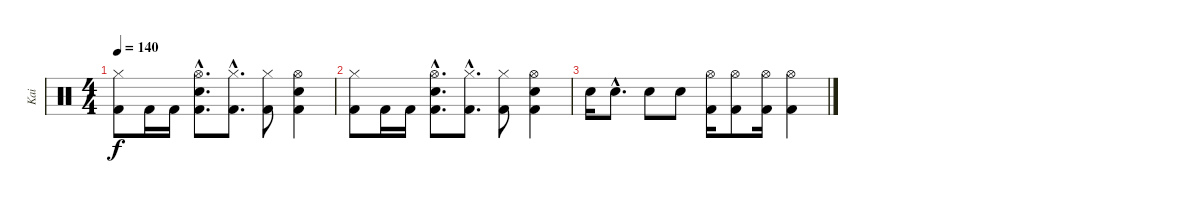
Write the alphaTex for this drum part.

\track ("Kai" "Kai") {instrument percussion}
\staff {score}
\articulation defaults
\ts (4 4)
\tempo 140
\clef neutral
\ks c
("Kick (hit) 2" "Hi-Hat (closed)").8{dy f} "Kick (hit) 2".16 "Kick (hit) 2".16 ("Kick (hit) 2"{hac} "Electric Snare (hit)"{hac} "Hi-Hat (open)"{hac}).8{d} ("Kick (hit) 2"{hac} "Hi-Hat (closed)"{hac}).8{d} ("Kick (hit) 2" "Hi-Hat (closed)").8 ("Kick (hit) 2" "Electric Snare (hit)" "Hi-Hat (open)").4 |
("Kick (hit) 2" "Hi-Hat (closed)").8 "Kick (hit) 2".16 "Kick (hit) 2".16 ("Kick (hit) 2"{hac} "Electric Snare (hit)"{hac} "Hi-Hat (open)"{hac}).8{d} ("Kick (hit) 2"{hac} "Hi-Hat (closed)"{hac}).8{d} ("Kick (hit) 2" "Hi-Hat (closed)").8 ("Kick (hit) 2" "Electric Snare (hit)" "Hi-Hat (open)").4 |
"Electric Snare (hit)".16 "Electric Snare (hit)"{hac}.8{d} "Electric Snare (hit)".8 "Electric Snare (hit)".8 ("Kick (hit) 2" "Hi-Hat (open)").16 ("Kick (hit) 2" "Hi-Hat (open)").8 ("Kick (hit) 2" "Hi-Hat (open)").16 ("Kick (hit) 2" "Hi-Hat (open)").4
